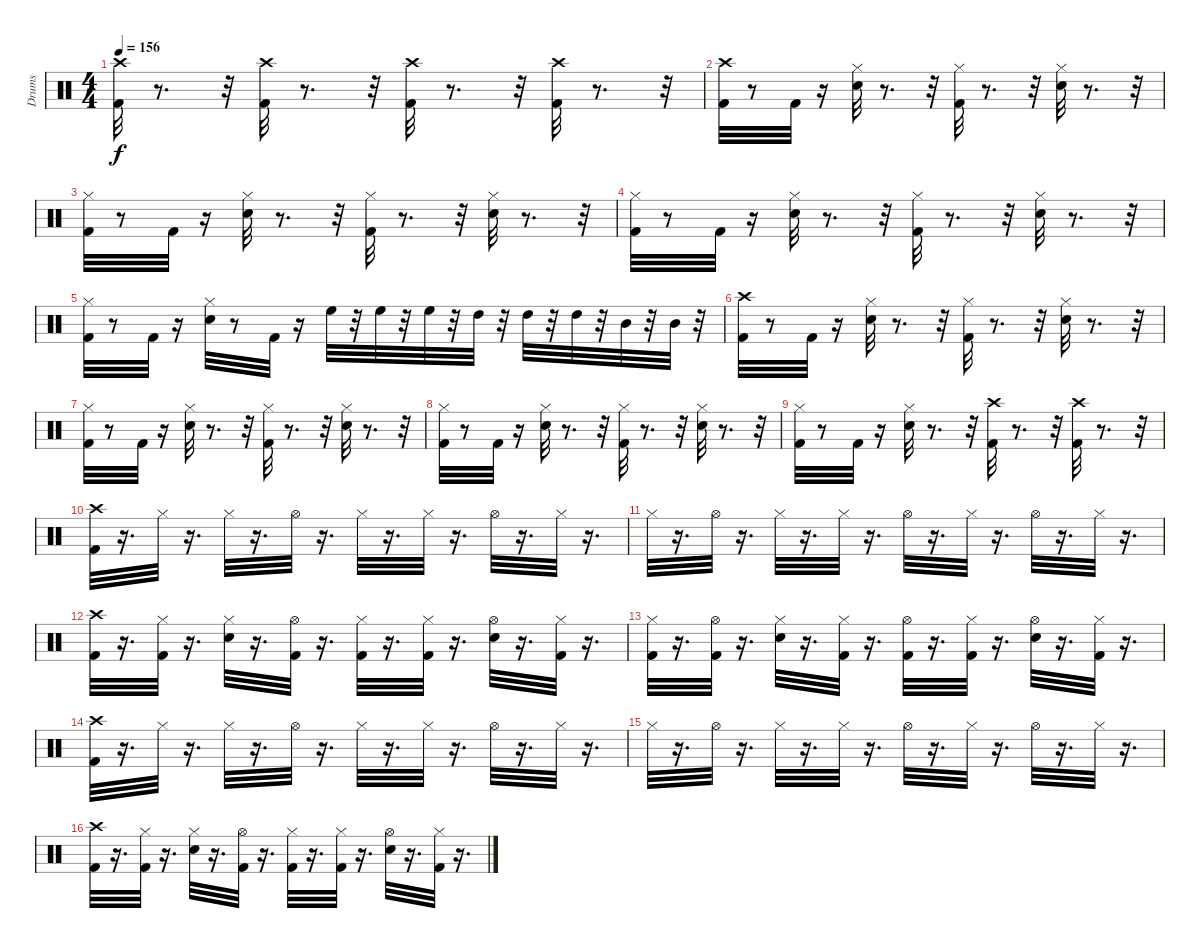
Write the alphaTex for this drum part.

\track ("Drums" "Drums") {instrument percussion}
\staff {score}
\articulation defaults
\ts (4 4)
\tempo 156
\clef neutral
\ks c
("Crash high (hit)" "Kick (hit) 2").32{dy f} r.8{d} r.32 ("Crash high (hit)" "Kick (hit) 2").32 r.8{d} r.32 ("Crash high (hit)" "Kick (hit) 2").32 r.8{d} r.32 ("Crash high (hit)" "Kick (hit) 2").32 r.8{d} r.32 |
("Crash high (hit)" "Kick (hit) 2").32 r.8 "Kick (hit) 2".32 r.16 ("Hi-Hat (closed)" "Snare (hit) 2").32 r.8{d} r.32 ("Hi-Hat (closed)" "Kick (hit) 2").32 r.8{d} r.32 ("Hi-Hat (closed)" "Snare (hit) 2").32 r.8{d} r.32 |
("Hi-Hat (closed)" "Kick (hit) 2").32 r.8 "Kick (hit) 2".32 r.16 ("Snare (hit) 2" "Hi-Hat (closed)").32 r.8{d} r.32 ("Hi-Hat (closed)" "Kick (hit) 2").32 r.8{d} r.32 ("Snare (hit) 2" "Hi-Hat (closed)").32 r.8{d} r.32 |
("Hi-Hat (closed)" "Kick (hit) 2").32 r.8 "Kick (hit) 2".32 r.16 ("Snare (hit) 2" "Hi-Hat (closed)").32 r.8{d} r.32 ("Hi-Hat (closed)" "Kick (hit) 2").32 r.8{d} r.32 ("Snare (hit) 2" "Hi-Hat (closed)").32 r.8{d} r.32 |
("Hi-Hat (closed)" "Kick (hit) 2").32 r.8 "Kick (hit) 2".32 r.16 ("Snare (hit) 2" "Hi-Hat (closed)").32 r.8 "Kick (hit) 2".32 r.16 "High Floor Tom (hit)".32 r.32 "High Floor Tom (hit)".32 r.32 "High Floor Tom (hit)".32 r.32 "High Tom (hit)".32 r.32 "High Tom (hit)".32 r.32 "High Tom (hit)".32 r.32 "Mid Tom (hit)".32 r.32 "Mid Tom (hit)".32 r.32 |
("Crash high (hit)" "Kick (hit) 2").32 r.8 "Kick (hit) 2".32 r.16 ("Hi-Hat (closed)" "Snare (hit) 2").32 r.8{d} r.32 ("Hi-Hat (closed)" "Kick (hit) 2").32 r.8{d} r.32 ("Hi-Hat (closed)" "Snare (hit) 2").32 r.8{d} r.32 |
("Hi-Hat (closed)" "Kick (hit) 2").32 r.8 "Kick (hit) 2".32 r.16 ("Snare (hit) 2" "Hi-Hat (closed)").32 r.8{d} r.32 ("Hi-Hat (closed)" "Kick (hit) 2").32 r.8{d} r.32 ("Snare (hit) 2" "Hi-Hat (closed)").32 r.8{d} r.32 |
("Hi-Hat (closed)" "Kick (hit) 2").32 r.8 "Kick (hit) 2".32 r.16 ("Snare (hit) 2" "Hi-Hat (closed)").32 r.8{d} r.32 ("Hi-Hat (closed)" "Kick (hit) 2").32 r.8{d} r.32 ("Snare (hit) 2" "Hi-Hat (closed)").32 r.8{d} r.32 |
("Hi-Hat (closed)" "Kick (hit) 2").32 r.8 "Kick (hit) 2".32 r.16 ("Snare (hit) 2" "Hi-Hat (closed)").32 r.8{d} r.32 ("Crash high (hit)" "Kick (hit) 2").32 r.8{d} r.32 ("Crash high (hit)" "Kick (hit) 2").32 r.8{d} r.32 |
("Crash high (hit)" "Kick (hit) 2").32 r.16{d} "Hi-Hat (closed)".32 r.16{d} "Hi-Hat (closed)".32 r.16{d} "Hi-Hat (open)".32 r.16{d} "Hi-Hat (closed)".32 r.16{d} "Hi-Hat (closed)".32 r.16{d} "Hi-Hat (open)".32 r.16{d} "Hi-Hat (closed)".32 r.16{d} |
"Hi-Hat (closed)".32 r.16{d} "Hi-Hat (open)".32 r.16{d} "Hi-Hat (closed)".32 r.16{d} "Hi-Hat (closed)".32 r.16{d} "Hi-Hat (open)".32 r.16{d} "Hi-Hat (closed)".32 r.16{d} "Hi-Hat (open)".32 r.16{d} "Hi-Hat (closed)".32 r.16{d} |
("Crash high (hit)" "Kick (hit) 2").32 r.16{d} ("Kick (hit) 2" "Hi-Hat (closed)").32 r.16{d} ("Snare (hit) 2" "Hi-Hat (closed)").32 r.16{d} ("Kick (hit) 2" "Hi-Hat (open)").32 r.16{d} ("Kick (hit) 2" "Hi-Hat (closed)").32 r.16{d} ("Kick (hit) 2" "Hi-Hat (closed)").32 r.16{d} ("Snare (hit) 2" "Hi-Hat (open)").32 r.16{d} ("Kick (hit) 2" "Hi-Hat (closed)").32 r.16{d} |
("Kick (hit) 2" "Hi-Hat (closed)").32 r.16{d} ("Kick (hit) 2" "Hi-Hat (open)").32 r.16{d} ("Snare (hit) 2" "Hi-Hat (closed)").32 r.16{d} ("Kick (hit) 2" "Hi-Hat (closed)").32 r.16{d} ("Kick (hit) 2" "Hi-Hat (open)").32 r.16{d} ("Kick (hit) 2" "Hi-Hat (closed)").32 r.16{d} ("Snare (hit) 2" "Hi-Hat (open)").32 r.16{d} ("Kick (hit) 2" "Hi-Hat (closed)").32 r.16{d} |
("Crash high (hit)" "Kick (hit) 2").32 r.16{d} "Hi-Hat (closed)".32 r.16{d} "Hi-Hat (closed)".32 r.16{d} "Hi-Hat (open)".32 r.16{d} "Hi-Hat (closed)".32 r.16{d} "Hi-Hat (closed)".32 r.16{d} "Hi-Hat (open)".32 r.16{d} "Hi-Hat (closed)".32 r.16{d} |
"Hi-Hat (closed)".32 r.16{d} "Hi-Hat (open)".32 r.16{d} "Hi-Hat (closed)".32 r.16{d} "Hi-Hat (closed)".32 r.16{d} "Hi-Hat (open)".32 r.16{d} "Hi-Hat (closed)".32 r.16{d} "Hi-Hat (open)".32 r.16{d} "Hi-Hat (closed)".32 r.16{d} |
("Crash high (hit)" "Kick (hit) 2").32 r.16{d} ("Kick (hit) 2" "Hi-Hat (closed)").32 r.16{d} ("Snare (hit) 2" "Hi-Hat (closed)").32 r.16{d} ("Kick (hit) 2" "Hi-Hat (open)").32 r.16{d} ("Kick (hit) 2" "Hi-Hat (closed)").32 r.16{d} ("Kick (hit) 2" "Hi-Hat (closed)").32 r.16{d} ("Snare (hit) 2" "Hi-Hat (open)").32 r.16{d} ("Kick (hit) 2" "Hi-Hat (closed)").32 r.16{d}
